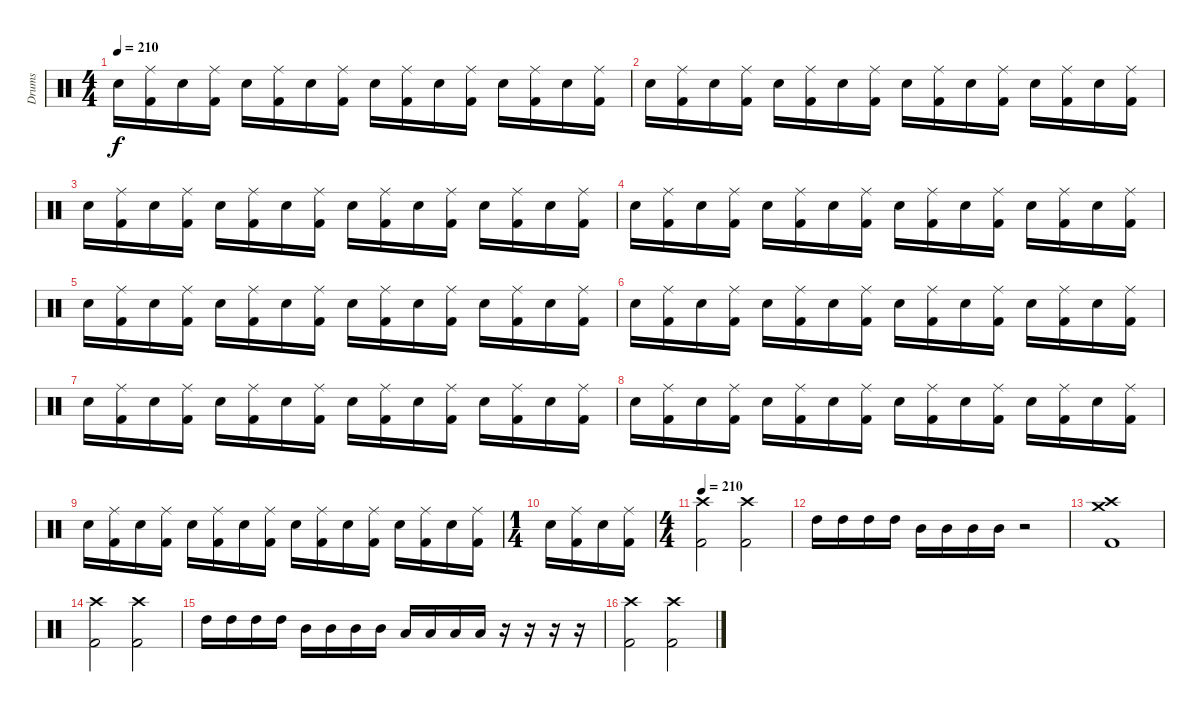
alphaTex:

\track ("Drums" "Drums") {instrument percussion}
\staff {score}
\articulation defaults
\ts (4 4)
\tempo 210
\clef neutral
\ks c "Electric Snare (hit)".16{dy f}
("Ride (middle)" "Kick (hit) 2").16 "Electric Snare (hit)".16 ("Ride (middle)" "Kick (hit) 2").16 "Electric Snare (hit)".16 ("Ride (middle)" "Kick (hit) 2").16 "Electric Snare (hit)".16 ("Ride (middle)" "Kick (hit) 2").16 "Electric Snare (hit)".16 ("Ride (middle)" "Kick (hit) 2").16 "Electric Snare (hit)".16 ("Ride (middle)" "Kick (hit) 2").16 "Electric Snare (hit)".16 ("Ride (middle)" "Kick (hit) 2").16 "Electric Snare (hit)".16 ("Ride (middle)" "Kick (hit) 2").16 |
"Electric Snare (hit)".16 ("Ride (middle)" "Kick (hit) 2").16 "Electric Snare (hit)".16 ("Ride (middle)" "Kick (hit) 2").16 "Electric Snare (hit)".16 ("Ride (middle)" "Kick (hit) 2").16 "Electric Snare (hit)".16 ("Ride (middle)" "Kick (hit) 2").16 "Electric Snare (hit)".16 ("Ride (middle)" "Kick (hit) 2").16 "Electric Snare (hit)".16 ("Ride (middle)" "Kick (hit) 2").16 "Electric Snare (hit)".16 ("Ride (middle)" "Kick (hit) 2").16 "Electric Snare (hit)".16 ("Ride (middle)" "Kick (hit) 2").16 |
"Electric Snare (hit)".16 ("Ride (middle)" "Kick (hit) 2").16 "Electric Snare (hit)".16 ("Ride (middle)" "Kick (hit) 2").16 "Electric Snare (hit)".16 ("Ride (middle)" "Kick (hit) 2").16 "Electric Snare (hit)".16 ("Ride (middle)" "Kick (hit) 2").16 "Electric Snare (hit)".16 ("Ride (middle)" "Kick (hit) 2").16 "Electric Snare (hit)".16 ("Ride (middle)" "Kick (hit) 2").16 "Electric Snare (hit)".16 ("Ride (middle)" "Kick (hit) 2").16 "Electric Snare (hit)".16 ("Ride (middle)" "Kick (hit) 2").16 |
"Electric Snare (hit)".16 ("Ride (middle)" "Kick (hit) 2").16 "Electric Snare (hit)".16 ("Ride (middle)" "Kick (hit) 2").16 "Electric Snare (hit)".16 ("Ride (middle)" "Kick (hit) 2").16 "Electric Snare (hit)".16 ("Ride (middle)" "Kick (hit) 2").16 "Electric Snare (hit)".16 ("Ride (middle)" "Kick (hit) 2").16 "Electric Snare (hit)".16 ("Ride (middle)" "Kick (hit) 2").16 "Electric Snare (hit)".16 ("Ride (middle)" "Kick (hit) 2").16 "Electric Snare (hit)".16 ("Ride (middle)" "Kick (hit) 2").16 |
"Electric Snare (hit)".16 ("Ride (middle)" "Kick (hit) 2").16 "Electric Snare (hit)".16 ("Ride (middle)" "Kick (hit) 2").16 "Electric Snare (hit)".16 ("Ride (middle)" "Kick (hit) 2").16 "Electric Snare (hit)".16 ("Ride (middle)" "Kick (hit) 2").16 "Electric Snare (hit)".16 ("Ride (middle)" "Kick (hit) 2").16 "Electric Snare (hit)".16 ("Ride (middle)" "Kick (hit) 2").16 "Electric Snare (hit)".16 ("Ride (middle)" "Kick (hit) 2").16 "Electric Snare (hit)".16 ("Ride (middle)" "Kick (hit) 2").16 |
"Electric Snare (hit)".16 ("Ride (middle)" "Kick (hit) 2").16 "Electric Snare (hit)".16 ("Ride (middle)" "Kick (hit) 2").16 "Electric Snare (hit)".16 ("Ride (middle)" "Kick (hit) 2").16 "Electric Snare (hit)".16 ("Ride (middle)" "Kick (hit) 2").16 "Electric Snare (hit)".16 ("Ride (middle)" "Kick (hit) 2").16 "Electric Snare (hit)".16 ("Ride (middle)" "Kick (hit) 2").16 "Electric Snare (hit)".16 ("Ride (middle)" "Kick (hit) 2").16 "Electric Snare (hit)".16 ("Ride (middle)" "Kick (hit) 2").16 |
"Electric Snare (hit)".16 ("Ride (middle)" "Kick (hit) 2").16 "Electric Snare (hit)".16 ("Ride (middle)" "Kick (hit) 2").16 "Electric Snare (hit)".16 ("Ride (middle)" "Kick (hit) 2").16 "Electric Snare (hit)".16 ("Ride (middle)" "Kick (hit) 2").16 "Electric Snare (hit)".16 ("Ride (middle)" "Kick (hit) 2").16 "Electric Snare (hit)".16 ("Ride (middle)" "Kick (hit) 2").16 "Electric Snare (hit)".16 ("Ride (middle)" "Kick (hit) 2").16 "Electric Snare (hit)".16 ("Ride (middle)" "Kick (hit) 2").16 |
"Electric Snare (hit)".16 ("Ride (middle)" "Kick (hit) 2").16 "Electric Snare (hit)".16 ("Ride (middle)" "Kick (hit) 2").16 "Electric Snare (hit)".16 ("Ride (middle)" "Kick (hit) 2").16 "Electric Snare (hit)".16 ("Ride (middle)" "Kick (hit) 2").16 "Electric Snare (hit)".16 ("Ride (middle)" "Kick (hit) 2").16 "Electric Snare (hit)".16 ("Ride (middle)" "Kick (hit) 2").16 "Electric Snare (hit)".16 ("Ride (middle)" "Kick (hit) 2").16 "Electric Snare (hit)".16 ("Ride (middle)" "Kick (hit) 2").16 |
"Electric Snare (hit)".16 ("Ride (middle)" "Kick (hit) 2").16 "Electric Snare (hit)".16 ("Ride (middle)" "Kick (hit) 2").16 "Electric Snare (hit)".16 ("Ride (middle)" "Kick (hit) 2").16 "Electric Snare (hit)".16 ("Ride (middle)" "Kick (hit) 2").16 "Electric Snare (hit)".16 ("Ride (middle)" "Kick (hit) 2").16 "Electric Snare (hit)".16 ("Ride (middle)" "Kick (hit) 2").16 "Electric Snare (hit)".16 ("Ride (middle)" "Kick (hit) 2").16 "Electric Snare (hit)".16 ("Ride (middle)" "Kick (hit) 2").16 |
\ts (1 4)
"Electric Snare (hit)".16 ("Ride (middle)" "Kick (hit) 2").16 "Electric Snare (hit)".16 ("Ride (middle)" "Kick (hit) 2").16 |
\ts (4 4)
\tempo 210
("Crash high (hit)" "Kick (hit) 2").2 ("Crash high (hit)" "Kick (hit) 2").2 |
"High Tom (hit)".16 "High Tom (hit)".16 "High Tom (hit)".16 "High Tom (hit)".16 "Mid Tom (hit)".16 "Mid Tom (hit)".16 "Mid Tom (hit)".16 "Mid Tom (hit)".16 r.2 |
("Crash high (hit)" "Crash medium (hit)" "Kick (hit) 2").1 |
("Crash high (hit)" "Kick (hit) 2").2 ("Crash high (hit)" "Kick (hit) 2").2 |
"High Tom (hit)".16 "High Tom (hit)".16 "High Tom (hit)".16 "High Tom (hit)".16 "Mid Tom (hit)".16 "Mid Tom (hit)".16 "Mid Tom (hit)".16 "Mid Tom (hit)".16 "Low Tom (hit)".16 "Low Tom (hit)".16 "Low Tom (hit)".16 "Low Tom (hit)".16 r.16 r.16 r.16 r.16 |
("Crash high (hit)" "Kick (hit) 2").2 ("Crash high (hit)" "Kick (hit) 2").2
